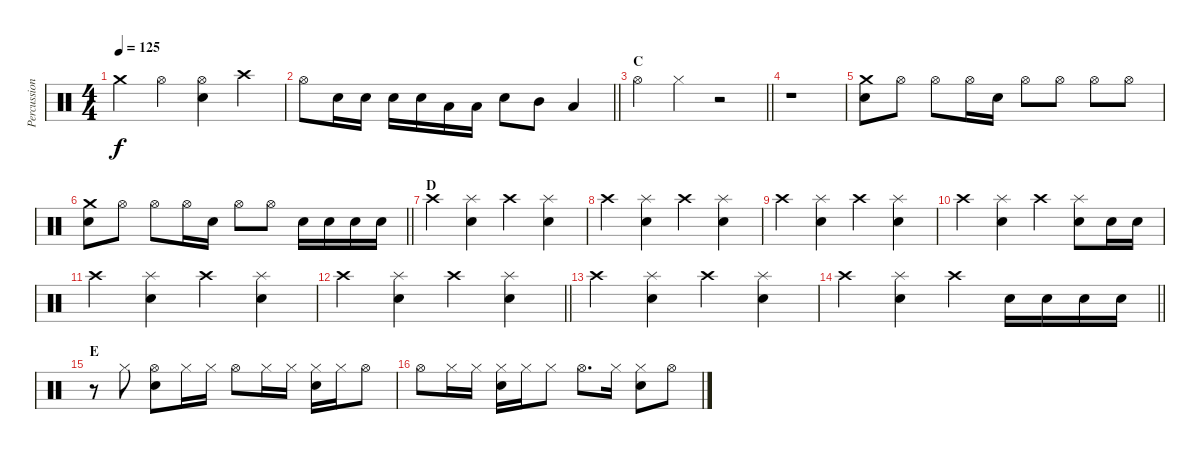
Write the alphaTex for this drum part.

\track ("Percussion" "Percussion") {instrument percussion}
\staff {score}
\articulation defaults
\ts (4 4)
\tempo 125
\clef neutral
\ks c "Crash medium (hit)".4{dy f} "Hi-Hat (open)".4
("Hi-Hat (open)" "Snare (hit) 2").4 "Crash high (hit)".4 |
\barLineRight lightlight "Hi-Hat (open)".8 "Snare (hit) 2".16 "Snare (hit) 2".16 "Snare (hit) 2".16 "Snare (hit) 2".16 "Low Tom (hit)".16 "Low Tom (hit)".16 "Snare (hit) 2".8 "Mid Tom (hit)".8 "Low Tom (hit)".4
|
\section ("" "C")
\barLineRight lightlight "Hi-Hat (open)".4 "Hi-Hat (closed)".4
r.2 |
r.1 |
("Crash medium (hit)" "Snare (hit) 2").8 "Hi-Hat (open)".8 "Hi-Hat (open)".8 "Hi-Hat (open)".16 "Snare (hit) 2".16 "Hi-Hat (open)".8 "Hi-Hat (open)".8 "Hi-Hat (open)".8 "Hi-Hat (open)".8 |
\barLineRight lightlight
("Crash medium (hit)" "Snare (hit) 2").8 "Hi-Hat (open)".8 "Hi-Hat (open)".8 "Hi-Hat (open)".16 "Snare (hit) 2".16 "Hi-Hat (open)".8 "Hi-Hat (open)".8 "Snare (hit) 2".16 "Snare (hit) 2".16 "Snare (hit) 2".16 "Snare (hit) 2".16 |
\section ("" "D")
"Crash high (hit)".4 ("Splash (hit)" "Snare (hit) 2").4 "Crash high (hit)".4 ("Splash (hit)" "Snare (hit) 2").4 |
"Crash high (hit)".4 ("Splash (hit)" "Snare (hit) 2").4 "Crash high (hit)".4 ("Splash (hit)" "Snare (hit) 2").4 |
"Crash high (hit)".4 ("Splash (hit)" "Snare (hit) 2").4 "Crash high (hit)".4 ("Splash (hit)" "Snare (hit) 2").4 |
"Crash high (hit)".4 ("Splash (hit)" "Snare (hit) 2").4 "Crash high (hit)".4 ("Splash (hit)" "Snare (hit) 2").8 "Snare (hit) 2".16 "Snare (hit) 2".16 |
"Crash high (hit)".4 ("Splash (hit)" "Snare (hit) 2").4 "Crash high (hit)".4 ("Splash (hit)" "Snare (hit) 2").4 |
\barLineRight lightlight "Crash high (hit)".4
("Splash (hit)" "Snare (hit) 2").4 "Crash high (hit)".4 ("Splash (hit)" "Snare (hit) 2").4 |
"Crash high (hit)".4 ("Splash (hit)" "Snare (hit) 2").4 "Crash high (hit)".4 ("Splash (hit)" "Snare (hit) 2").4 |
\barLineRight lightlight "Crash high (hit)".4
("Splash (hit)" "Snare (hit) 2").4 "Crash high (hit)".4 "Snare (hit) 2".16 "Snare (hit) 2".16 "Snare (hit) 2".16 "Snare (hit) 2".16 |
\section ("" "E")
r.8 "Hi-Hat (closed)".8 ("Hi-Hat (open)" "Snare (hit) 2").8 "Hi-Hat (closed)".16 "Hi-Hat (closed)".16 "Hi-Hat (open)".8 "Hi-Hat (closed)".16 "Hi-Hat (closed)".16 ("Hi-Hat (closed)" "Snare (hit) 2").16 "Hi-Hat (closed)".16 "Hi-Hat (open)".8 |
"Hi-Hat (open)".8 "Hi-Hat (closed)".16 "Hi-Hat (closed)".16 ("Hi-Hat (closed)" "Snare (hit) 2").16 "Hi-Hat (closed)".16 "Hi-Hat (closed)".8 "Hi-Hat (open)".8{d} "Hi-Hat (closed)".16 ("Hi-Hat (closed)" "Snare (hit) 2").8 "Hi-Hat (open)".8
